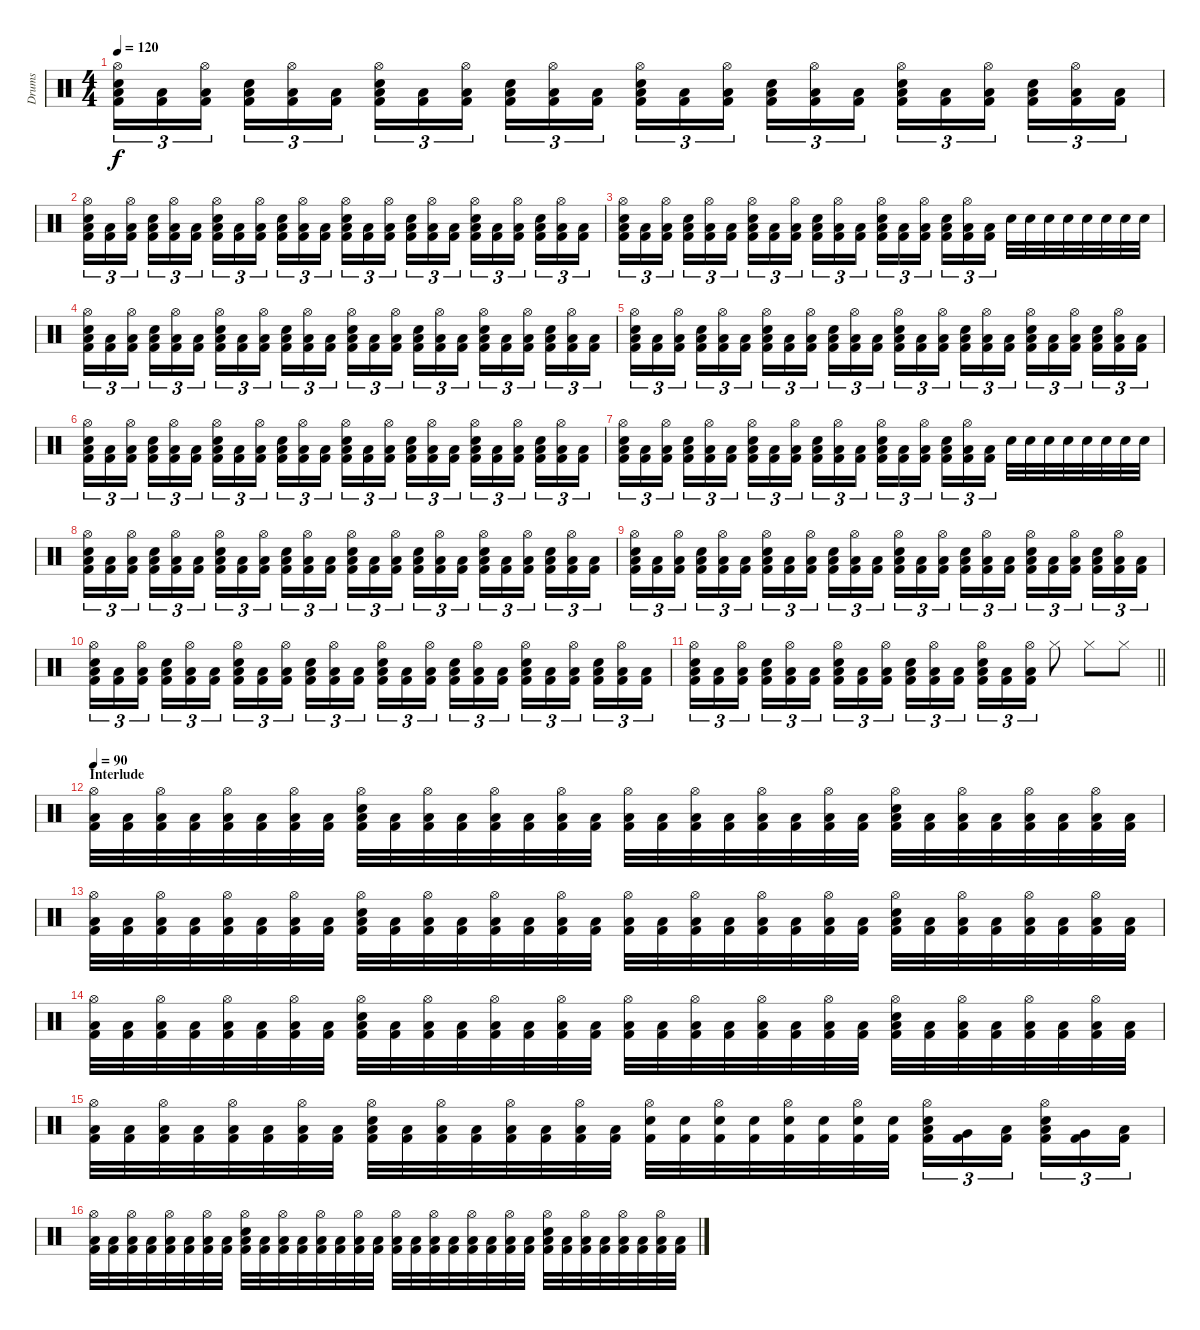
\track ("Drums" "Drums") {instrument percussion}
\staff {score}
\articulation defaults
\ts (4 4)
\tempo 120
\clef neutral
\ks c
("Hi-Hat (open)" "Low Floor Tom (hit)" "Snare (hit) 2" "Kick (hit) 2").16{tu (3 2) dy f} ("Low Floor Tom (hit)" "Kick (hit) 2").16{tu (3 2)} ("Hi-Hat (open)" "Low Floor Tom (hit)" "Kick (hit) 2").16{tu (3 2) beam splitsecondary} ("Low Floor Tom (hit)" "Snare (hit) 2" "Kick (hit) 2").16{tu (3 2)} ("Hi-Hat (open)" "Low Floor Tom (hit)" "Kick (hit) 2").16{tu (3 2)} ("Low Floor Tom (hit)" "Kick (hit) 2").16{tu (3 2)} ("Hi-Hat (open)" "Low Floor Tom (hit)" "Snare (hit) 2" "Kick (hit) 2").16{tu (3 2)} ("Low Floor Tom (hit)" "Kick (hit) 2").16{tu (3 2)} ("Hi-Hat (open)" "Low Floor Tom (hit)" "Kick (hit) 2").16{tu (3 2) beam splitsecondary} ("Low Floor Tom (hit)" "Snare (hit) 2" "Kick (hit) 2").16{tu (3 2)} ("Hi-Hat (open)" "Low Floor Tom (hit)" "Kick (hit) 2").16{tu (3 2)} ("Low Floor Tom (hit)" "Kick (hit) 2").16{tu (3 2)} ("Hi-Hat (open)" "Low Floor Tom (hit)" "Snare (hit) 2" "Kick (hit) 2").16{tu (3 2)} ("Low Floor Tom (hit)" "Kick (hit) 2").16{tu (3 2)} ("Hi-Hat (open)" "Low Floor Tom (hit)" "Kick (hit) 2").16{tu (3 2) beam splitsecondary} ("Low Floor Tom (hit)" "Snare (hit) 2" "Kick (hit) 2").16{tu (3 2)} ("Hi-Hat (open)" "Low Floor Tom (hit)" "Kick (hit) 2").16{tu (3 2)} ("Low Floor Tom (hit)" "Kick (hit) 2").16{tu (3 2)} ("Hi-Hat (open)" "Low Floor Tom (hit)" "Snare (hit) 2" "Kick (hit) 2").16{tu (3 2)} ("Low Floor Tom (hit)" "Kick (hit) 2").16{tu (3 2)} ("Hi-Hat (open)" "Low Floor Tom (hit)" "Kick (hit) 2").16{tu (3 2) beam splitsecondary} ("Low Floor Tom (hit)" "Snare (hit) 2" "Kick (hit) 2").16{tu (3 2)} ("Hi-Hat (open)" "Low Floor Tom (hit)" "Kick (hit) 2").16{tu (3 2)} ("Low Floor Tom (hit)" "Kick (hit) 2").16{tu (3 2)} |
("Hi-Hat (open)" "Low Floor Tom (hit)" "Snare (hit) 2" "Kick (hit) 2").16{tu (3 2)} ("Low Floor Tom (hit)" "Kick (hit) 2").16{tu (3 2)} ("Hi-Hat (open)" "Low Floor Tom (hit)" "Kick (hit) 2").16{tu (3 2) beam splitsecondary} ("Low Floor Tom (hit)" "Snare (hit) 2" "Kick (hit) 2").16{tu (3 2)} ("Hi-Hat (open)" "Low Floor Tom (hit)" "Kick (hit) 2").16{tu (3 2)} ("Low Floor Tom (hit)" "Kick (hit) 2").16{tu (3 2)} ("Hi-Hat (open)" "Low Floor Tom (hit)" "Snare (hit) 2" "Kick (hit) 2").16{tu (3 2)} ("Low Floor Tom (hit)" "Kick (hit) 2").16{tu (3 2)} ("Hi-Hat (open)" "Low Floor Tom (hit)" "Kick (hit) 2").16{tu (3 2) beam splitsecondary} ("Low Floor Tom (hit)" "Snare (hit) 2" "Kick (hit) 2").16{tu (3 2)} ("Hi-Hat (open)" "Low Floor Tom (hit)" "Kick (hit) 2").16{tu (3 2)} ("Low Floor Tom (hit)" "Kick (hit) 2").16{tu (3 2)} ("Hi-Hat (open)" "Low Floor Tom (hit)" "Snare (hit) 2" "Kick (hit) 2").16{tu (3 2)} ("Low Floor Tom (hit)" "Kick (hit) 2").16{tu (3 2)} ("Hi-Hat (open)" "Low Floor Tom (hit)" "Kick (hit) 2").16{tu (3 2) beam splitsecondary} ("Low Floor Tom (hit)" "Snare (hit) 2" "Kick (hit) 2").16{tu (3 2)} ("Hi-Hat (open)" "Low Floor Tom (hit)" "Kick (hit) 2").16{tu (3 2)} ("Low Floor Tom (hit)" "Kick (hit) 2").16{tu (3 2)} ("Hi-Hat (open)" "Low Floor Tom (hit)" "Snare (hit) 2" "Kick (hit) 2").16{tu (3 2)} ("Low Floor Tom (hit)" "Kick (hit) 2").16{tu (3 2)} ("Hi-Hat (open)" "Low Floor Tom (hit)" "Kick (hit) 2").16{tu (3 2) beam splitsecondary} ("Low Floor Tom (hit)" "Snare (hit) 2" "Kick (hit) 2").16{tu (3 2)} ("Hi-Hat (open)" "Low Floor Tom (hit)" "Kick (hit) 2").16{tu (3 2)} ("Low Floor Tom (hit)" "Kick (hit) 2").16{tu (3 2)} |
("Hi-Hat (open)" "Low Floor Tom (hit)" "Snare (hit) 2" "Kick (hit) 2").16{tu (3 2)} ("Low Floor Tom (hit)" "Kick (hit) 2").16{tu (3 2)} ("Hi-Hat (open)" "Low Floor Tom (hit)" "Kick (hit) 2").16{tu (3 2) beam splitsecondary} ("Low Floor Tom (hit)" "Snare (hit) 2" "Kick (hit) 2").16{tu (3 2)} ("Hi-Hat (open)" "Low Floor Tom (hit)" "Kick (hit) 2").16{tu (3 2)} ("Low Floor Tom (hit)" "Kick (hit) 2").16{tu (3 2)} ("Hi-Hat (open)" "Low Floor Tom (hit)" "Snare (hit) 2" "Kick (hit) 2").16{tu (3 2)} ("Low Floor Tom (hit)" "Kick (hit) 2").16{tu (3 2)} ("Hi-Hat (open)" "Low Floor Tom (hit)" "Kick (hit) 2").16{tu (3 2) beam splitsecondary} ("Low Floor Tom (hit)" "Snare (hit) 2" "Kick (hit) 2").16{tu (3 2)} ("Hi-Hat (open)" "Low Floor Tom (hit)" "Kick (hit) 2").16{tu (3 2)} ("Low Floor Tom (hit)" "Kick (hit) 2").16{tu (3 2)} ("Hi-Hat (open)" "Low Floor Tom (hit)" "Snare (hit) 2" "Kick (hit) 2").16{tu (3 2)} ("Low Floor Tom (hit)" "Kick (hit) 2").16{tu (3 2)} ("Hi-Hat (open)" "Low Floor Tom (hit)" "Kick (hit) 2").16{tu (3 2) beam splitsecondary} ("Low Floor Tom (hit)" "Snare (hit) 2" "Kick (hit) 2").16{tu (3 2)} ("Hi-Hat (open)" "Low Floor Tom (hit)" "Kick (hit) 2").16{tu (3 2)} ("Low Floor Tom (hit)" "Kick (hit) 2").16{tu (3 2)} "Snare (hit) 2".32 "Snare (hit) 2".32 "Snare (hit) 2".32 "Snare (hit) 2".32 "Snare (hit) 2".32 "Snare (hit) 2".32 "Snare (hit) 2".32 "Snare (hit) 2".32 |
("Hi-Hat (open)" "Low Floor Tom (hit)" "Snare (hit) 2" "Kick (hit) 2").16{tu (3 2)} ("Low Floor Tom (hit)" "Kick (hit) 2").16{tu (3 2)} ("Hi-Hat (open)" "Low Floor Tom (hit)" "Kick (hit) 2").16{tu (3 2) beam splitsecondary} ("Low Floor Tom (hit)" "Snare (hit) 2" "Kick (hit) 2").16{tu (3 2)} ("Hi-Hat (open)" "Low Floor Tom (hit)" "Kick (hit) 2").16{tu (3 2)} ("Low Floor Tom (hit)" "Kick (hit) 2").16{tu (3 2)} ("Hi-Hat (open)" "Low Floor Tom (hit)" "Snare (hit) 2" "Kick (hit) 2").16{tu (3 2)} ("Low Floor Tom (hit)" "Kick (hit) 2").16{tu (3 2)} ("Hi-Hat (open)" "Low Floor Tom (hit)" "Kick (hit) 2").16{tu (3 2) beam splitsecondary} ("Low Floor Tom (hit)" "Snare (hit) 2" "Kick (hit) 2").16{tu (3 2)} ("Hi-Hat (open)" "Low Floor Tom (hit)" "Kick (hit) 2").16{tu (3 2)} ("Low Floor Tom (hit)" "Kick (hit) 2").16{tu (3 2)} ("Hi-Hat (open)" "Low Floor Tom (hit)" "Snare (hit) 2" "Kick (hit) 2").16{tu (3 2)} ("Low Floor Tom (hit)" "Kick (hit) 2").16{tu (3 2)} ("Hi-Hat (open)" "Low Floor Tom (hit)" "Kick (hit) 2").16{tu (3 2) beam splitsecondary} ("Low Floor Tom (hit)" "Snare (hit) 2" "Kick (hit) 2").16{tu (3 2)} ("Hi-Hat (open)" "Low Floor Tom (hit)" "Kick (hit) 2").16{tu (3 2)} ("Low Floor Tom (hit)" "Kick (hit) 2").16{tu (3 2)} ("Hi-Hat (open)" "Low Floor Tom (hit)" "Snare (hit) 2" "Kick (hit) 2").16{tu (3 2)} ("Low Floor Tom (hit)" "Kick (hit) 2").16{tu (3 2)} ("Hi-Hat (open)" "Low Floor Tom (hit)" "Kick (hit) 2").16{tu (3 2) beam splitsecondary} ("Low Floor Tom (hit)" "Snare (hit) 2" "Kick (hit) 2").16{tu (3 2)} ("Hi-Hat (open)" "Low Floor Tom (hit)" "Kick (hit) 2").16{tu (3 2)} ("Low Floor Tom (hit)" "Kick (hit) 2").16{tu (3 2)} |
("Hi-Hat (open)" "Low Floor Tom (hit)" "Snare (hit) 2" "Kick (hit) 2").16{tu (3 2)} ("Low Floor Tom (hit)" "Kick (hit) 2").16{tu (3 2)} ("Hi-Hat (open)" "Low Floor Tom (hit)" "Kick (hit) 2").16{tu (3 2) beam splitsecondary} ("Low Floor Tom (hit)" "Snare (hit) 2" "Kick (hit) 2").16{tu (3 2)} ("Hi-Hat (open)" "Low Floor Tom (hit)" "Kick (hit) 2").16{tu (3 2)} ("Low Floor Tom (hit)" "Kick (hit) 2").16{tu (3 2)} ("Hi-Hat (open)" "Low Floor Tom (hit)" "Snare (hit) 2" "Kick (hit) 2").16{tu (3 2)} ("Low Floor Tom (hit)" "Kick (hit) 2").16{tu (3 2)} ("Hi-Hat (open)" "Low Floor Tom (hit)" "Kick (hit) 2").16{tu (3 2) beam splitsecondary} ("Low Floor Tom (hit)" "Snare (hit) 2" "Kick (hit) 2").16{tu (3 2)} ("Hi-Hat (open)" "Low Floor Tom (hit)" "Kick (hit) 2").16{tu (3 2)} ("Low Floor Tom (hit)" "Kick (hit) 2").16{tu (3 2)} ("Hi-Hat (open)" "Low Floor Tom (hit)" "Snare (hit) 2" "Kick (hit) 2").16{tu (3 2)} ("Low Floor Tom (hit)" "Kick (hit) 2").16{tu (3 2)} ("Hi-Hat (open)" "Low Floor Tom (hit)" "Kick (hit) 2").16{tu (3 2) beam splitsecondary} ("Low Floor Tom (hit)" "Snare (hit) 2" "Kick (hit) 2").16{tu (3 2)} ("Hi-Hat (open)" "Low Floor Tom (hit)" "Kick (hit) 2").16{tu (3 2)} ("Low Floor Tom (hit)" "Kick (hit) 2").16{tu (3 2)} ("Hi-Hat (open)" "Low Floor Tom (hit)" "Snare (hit) 2" "Kick (hit) 2").16{tu (3 2)} ("Low Floor Tom (hit)" "Kick (hit) 2").16{tu (3 2)} ("Hi-Hat (open)" "Low Floor Tom (hit)" "Kick (hit) 2").16{tu (3 2) beam splitsecondary} ("Low Floor Tom (hit)" "Snare (hit) 2" "Kick (hit) 2").16{tu (3 2)} ("Hi-Hat (open)" "Low Floor Tom (hit)" "Kick (hit) 2").16{tu (3 2)} ("Low Floor Tom (hit)" "Kick (hit) 2").16{tu (3 2)} |
("Hi-Hat (open)" "Low Floor Tom (hit)" "Snare (hit) 2" "Kick (hit) 2").16{tu (3 2)} ("Low Floor Tom (hit)" "Kick (hit) 2").16{tu (3 2)} ("Hi-Hat (open)" "Low Floor Tom (hit)" "Kick (hit) 2").16{tu (3 2) beam splitsecondary} ("Low Floor Tom (hit)" "Snare (hit) 2" "Kick (hit) 2").16{tu (3 2)} ("Hi-Hat (open)" "Low Floor Tom (hit)" "Kick (hit) 2").16{tu (3 2)} ("Low Floor Tom (hit)" "Kick (hit) 2").16{tu (3 2)} ("Hi-Hat (open)" "Low Floor Tom (hit)" "Snare (hit) 2" "Kick (hit) 2").16{tu (3 2)} ("Low Floor Tom (hit)" "Kick (hit) 2").16{tu (3 2)} ("Hi-Hat (open)" "Low Floor Tom (hit)" "Kick (hit) 2").16{tu (3 2) beam splitsecondary} ("Low Floor Tom (hit)" "Snare (hit) 2" "Kick (hit) 2").16{tu (3 2)} ("Hi-Hat (open)" "Low Floor Tom (hit)" "Kick (hit) 2").16{tu (3 2)} ("Low Floor Tom (hit)" "Kick (hit) 2").16{tu (3 2)} ("Hi-Hat (open)" "Low Floor Tom (hit)" "Snare (hit) 2" "Kick (hit) 2").16{tu (3 2)} ("Low Floor Tom (hit)" "Kick (hit) 2").16{tu (3 2)} ("Hi-Hat (open)" "Low Floor Tom (hit)" "Kick (hit) 2").16{tu (3 2) beam splitsecondary} ("Low Floor Tom (hit)" "Snare (hit) 2" "Kick (hit) 2").16{tu (3 2)} ("Hi-Hat (open)" "Low Floor Tom (hit)" "Kick (hit) 2").16{tu (3 2)} ("Low Floor Tom (hit)" "Kick (hit) 2").16{tu (3 2)} ("Hi-Hat (open)" "Low Floor Tom (hit)" "Snare (hit) 2" "Kick (hit) 2").16{tu (3 2)} ("Low Floor Tom (hit)" "Kick (hit) 2").16{tu (3 2)} ("Hi-Hat (open)" "Low Floor Tom (hit)" "Kick (hit) 2").16{tu (3 2) beam splitsecondary} ("Low Floor Tom (hit)" "Snare (hit) 2" "Kick (hit) 2").16{tu (3 2)} ("Hi-Hat (open)" "Low Floor Tom (hit)" "Kick (hit) 2").16{tu (3 2)} ("Low Floor Tom (hit)" "Kick (hit) 2").16{tu (3 2)} |
("Hi-Hat (open)" "Low Floor Tom (hit)" "Snare (hit) 2" "Kick (hit) 2").16{tu (3 2)} ("Low Floor Tom (hit)" "Kick (hit) 2").16{tu (3 2)} ("Hi-Hat (open)" "Low Floor Tom (hit)" "Kick (hit) 2").16{tu (3 2) beam splitsecondary} ("Low Floor Tom (hit)" "Snare (hit) 2" "Kick (hit) 2").16{tu (3 2)} ("Hi-Hat (open)" "Low Floor Tom (hit)" "Kick (hit) 2").16{tu (3 2)} ("Low Floor Tom (hit)" "Kick (hit) 2").16{tu (3 2)} ("Hi-Hat (open)" "Low Floor Tom (hit)" "Snare (hit) 2" "Kick (hit) 2").16{tu (3 2)} ("Low Floor Tom (hit)" "Kick (hit) 2").16{tu (3 2)} ("Hi-Hat (open)" "Low Floor Tom (hit)" "Kick (hit) 2").16{tu (3 2) beam splitsecondary} ("Low Floor Tom (hit)" "Snare (hit) 2" "Kick (hit) 2").16{tu (3 2)} ("Hi-Hat (open)" "Low Floor Tom (hit)" "Kick (hit) 2").16{tu (3 2)} ("Low Floor Tom (hit)" "Kick (hit) 2").16{tu (3 2)} ("Hi-Hat (open)" "Low Floor Tom (hit)" "Snare (hit) 2" "Kick (hit) 2").16{tu (3 2)} ("Low Floor Tom (hit)" "Kick (hit) 2").16{tu (3 2)} ("Hi-Hat (open)" "Low Floor Tom (hit)" "Kick (hit) 2").16{tu (3 2) beam splitsecondary} ("Low Floor Tom (hit)" "Snare (hit) 2" "Kick (hit) 2").16{tu (3 2)} ("Hi-Hat (open)" "Low Floor Tom (hit)" "Kick (hit) 2").16{tu (3 2)} ("Low Floor Tom (hit)" "Kick (hit) 2").16{tu (3 2)} "Snare (hit) 2".32 "Snare (hit) 2".32 "Snare (hit) 2".32 "Snare (hit) 2".32 "Snare (hit) 2".32 "Snare (hit) 2".32 "Snare (hit) 2".32 "Snare (hit) 2".32 |
("Hi-Hat (open)" "Low Floor Tom (hit)" "Snare (hit) 2" "Kick (hit) 2").16{tu (3 2)} ("Low Floor Tom (hit)" "Kick (hit) 2").16{tu (3 2)} ("Hi-Hat (open)" "Low Floor Tom (hit)" "Kick (hit) 2").16{tu (3 2) beam splitsecondary} ("Low Floor Tom (hit)" "Snare (hit) 2" "Kick (hit) 2").16{tu (3 2)} ("Hi-Hat (open)" "Low Floor Tom (hit)" "Kick (hit) 2").16{tu (3 2)} ("Low Floor Tom (hit)" "Kick (hit) 2").16{tu (3 2)} ("Hi-Hat (open)" "Low Floor Tom (hit)" "Snare (hit) 2" "Kick (hit) 2").16{tu (3 2)} ("Low Floor Tom (hit)" "Kick (hit) 2").16{tu (3 2)} ("Hi-Hat (open)" "Low Floor Tom (hit)" "Kick (hit) 2").16{tu (3 2) beam splitsecondary} ("Low Floor Tom (hit)" "Snare (hit) 2" "Kick (hit) 2").16{tu (3 2)} ("Hi-Hat (open)" "Low Floor Tom (hit)" "Kick (hit) 2").16{tu (3 2)} ("Low Floor Tom (hit)" "Kick (hit) 2").16{tu (3 2)} ("Hi-Hat (open)" "Low Floor Tom (hit)" "Snare (hit) 2" "Kick (hit) 2").16{tu (3 2)} ("Low Floor Tom (hit)" "Kick (hit) 2").16{tu (3 2)} ("Hi-Hat (open)" "Low Floor Tom (hit)" "Kick (hit) 2").16{tu (3 2) beam splitsecondary} ("Low Floor Tom (hit)" "Snare (hit) 2" "Kick (hit) 2").16{tu (3 2)} ("Hi-Hat (open)" "Low Floor Tom (hit)" "Kick (hit) 2").16{tu (3 2)} ("Low Floor Tom (hit)" "Kick (hit) 2").16{tu (3 2)} ("Hi-Hat (open)" "Low Floor Tom (hit)" "Snare (hit) 2" "Kick (hit) 2").16{tu (3 2)} ("Low Floor Tom (hit)" "Kick (hit) 2").16{tu (3 2)} ("Hi-Hat (open)" "Low Floor Tom (hit)" "Kick (hit) 2").16{tu (3 2) beam splitsecondary} ("Low Floor Tom (hit)" "Snare (hit) 2" "Kick (hit) 2").16{tu (3 2)} ("Hi-Hat (open)" "Low Floor Tom (hit)" "Kick (hit) 2").16{tu (3 2)} ("Low Floor Tom (hit)" "Kick (hit) 2").16{tu (3 2)} |
("Hi-Hat (open)" "Low Floor Tom (hit)" "Snare (hit) 2" "Kick (hit) 2").16{tu (3 2)} ("Low Floor Tom (hit)" "Kick (hit) 2").16{tu (3 2)} ("Hi-Hat (open)" "Low Floor Tom (hit)" "Kick (hit) 2").16{tu (3 2) beam splitsecondary} ("Low Floor Tom (hit)" "Snare (hit) 2" "Kick (hit) 2").16{tu (3 2)} ("Hi-Hat (open)" "Low Floor Tom (hit)" "Kick (hit) 2").16{tu (3 2)} ("Low Floor Tom (hit)" "Kick (hit) 2").16{tu (3 2)} ("Hi-Hat (open)" "Low Floor Tom (hit)" "Snare (hit) 2" "Kick (hit) 2").16{tu (3 2)} ("Low Floor Tom (hit)" "Kick (hit) 2").16{tu (3 2)} ("Hi-Hat (open)" "Low Floor Tom (hit)" "Kick (hit) 2").16{tu (3 2) beam splitsecondary} ("Low Floor Tom (hit)" "Snare (hit) 2" "Kick (hit) 2").16{tu (3 2)} ("Hi-Hat (open)" "Low Floor Tom (hit)" "Kick (hit) 2").16{tu (3 2)} ("Low Floor Tom (hit)" "Kick (hit) 2").16{tu (3 2)} ("Hi-Hat (open)" "Low Floor Tom (hit)" "Snare (hit) 2" "Kick (hit) 2").16{tu (3 2)} ("Low Floor Tom (hit)" "Kick (hit) 2").16{tu (3 2)} ("Hi-Hat (open)" "Low Floor Tom (hit)" "Kick (hit) 2").16{tu (3 2) beam splitsecondary} ("Low Floor Tom (hit)" "Snare (hit) 2" "Kick (hit) 2").16{tu (3 2)} ("Hi-Hat (open)" "Low Floor Tom (hit)" "Kick (hit) 2").16{tu (3 2)} ("Low Floor Tom (hit)" "Kick (hit) 2").16{tu (3 2)} ("Hi-Hat (open)" "Low Floor Tom (hit)" "Snare (hit) 2" "Kick (hit) 2").16{tu (3 2)} ("Low Floor Tom (hit)" "Kick (hit) 2").16{tu (3 2)} ("Hi-Hat (open)" "Low Floor Tom (hit)" "Kick (hit) 2").16{tu (3 2) beam splitsecondary} ("Low Floor Tom (hit)" "Snare (hit) 2" "Kick (hit) 2").16{tu (3 2)} ("Hi-Hat (open)" "Low Floor Tom (hit)" "Kick (hit) 2").16{tu (3 2)} ("Low Floor Tom (hit)" "Kick (hit) 2").16{tu (3 2)} |
("Hi-Hat (open)" "Low Floor Tom (hit)" "Snare (hit) 2" "Kick (hit) 2").16{tu (3 2)} ("Low Floor Tom (hit)" "Kick (hit) 2").16{tu (3 2)} ("Hi-Hat (open)" "Low Floor Tom (hit)" "Kick (hit) 2").16{tu (3 2) beam splitsecondary} ("Low Floor Tom (hit)" "Snare (hit) 2" "Kick (hit) 2").16{tu (3 2)} ("Hi-Hat (open)" "Low Floor Tom (hit)" "Kick (hit) 2").16{tu (3 2)} ("Low Floor Tom (hit)" "Kick (hit) 2").16{tu (3 2)} ("Hi-Hat (open)" "Low Floor Tom (hit)" "Snare (hit) 2" "Kick (hit) 2").16{tu (3 2)} ("Low Floor Tom (hit)" "Kick (hit) 2").16{tu (3 2)} ("Hi-Hat (open)" "Low Floor Tom (hit)" "Kick (hit) 2").16{tu (3 2) beam splitsecondary} ("Low Floor Tom (hit)" "Snare (hit) 2" "Kick (hit) 2").16{tu (3 2)} ("Hi-Hat (open)" "Low Floor Tom (hit)" "Kick (hit) 2").16{tu (3 2)} ("Low Floor Tom (hit)" "Kick (hit) 2").16{tu (3 2)} ("Hi-Hat (open)" "Low Floor Tom (hit)" "Snare (hit) 2" "Kick (hit) 2").16{tu (3 2)} ("Low Floor Tom (hit)" "Kick (hit) 2").16{tu (3 2)} ("Hi-Hat (open)" "Low Floor Tom (hit)" "Kick (hit) 2").16{tu (3 2) beam splitsecondary} ("Low Floor Tom (hit)" "Snare (hit) 2" "Kick (hit) 2").16{tu (3 2)} ("Hi-Hat (open)" "Low Floor Tom (hit)" "Kick (hit) 2").16{tu (3 2)} ("Low Floor Tom (hit)" "Kick (hit) 2").16{tu (3 2)} ("Hi-Hat (open)" "Low Floor Tom (hit)" "Snare (hit) 2" "Kick (hit) 2").16{tu (3 2)} ("Low Floor Tom (hit)" "Kick (hit) 2").16{tu (3 2)} ("Hi-Hat (open)" "Low Floor Tom (hit)" "Kick (hit) 2").16{tu (3 2) beam splitsecondary} ("Low Floor Tom (hit)" "Snare (hit) 2" "Kick (hit) 2").16{tu (3 2)} ("Hi-Hat (open)" "Low Floor Tom (hit)" "Kick (hit) 2").16{tu (3 2)} ("Low Floor Tom (hit)" "Kick (hit) 2").16{tu (3 2)} |
\barLineRight lightlight
("Hi-Hat (open)" "Low Floor Tom (hit)" "Snare (hit) 2" "Kick (hit) 2").16{tu (3 2)} ("Low Floor Tom (hit)" "Kick (hit) 2").16{tu (3 2)} ("Hi-Hat (open)" "Low Floor Tom (hit)" "Kick (hit) 2").16{tu (3 2) beam splitsecondary} ("Low Floor Tom (hit)" "Snare (hit) 2" "Kick (hit) 2").16{tu (3 2)} ("Hi-Hat (open)" "Low Floor Tom (hit)" "Kick (hit) 2").16{tu (3 2)} ("Low Floor Tom (hit)" "Kick (hit) 2").16{tu (3 2)} ("Hi-Hat (open)" "Low Floor Tom (hit)" "Snare (hit) 2" "Kick (hit) 2").16{tu (3 2)} ("Low Floor Tom (hit)" "Kick (hit) 2").16{tu (3 2)} ("Hi-Hat (open)" "Low Floor Tom (hit)" "Kick (hit) 2").16{tu (3 2) beam splitsecondary} ("Low Floor Tom (hit)" "Snare (hit) 2" "Kick (hit) 2").16{tu (3 2)} ("Hi-Hat (open)" "Low Floor Tom (hit)" "Kick (hit) 2").16{tu (3 2)} ("Low Floor Tom (hit)" "Kick (hit) 2").16{tu (3 2)} ("Hi-Hat (open)" "Low Floor Tom (hit)" "Snare (hit) 2" "Kick (hit) 2").16{tu (3 2)} ("Low Floor Tom (hit)" "Kick (hit) 2").16{tu (3 2)} ("Hi-Hat (open)" "Low Floor Tom (hit)" "Kick (hit) 2").16{tu (3 2)} "Hi-Hat (closed)".8 "Hi-Hat (closed)".8 "Hi-Hat (closed)".8 |
\section ("" "Interlude")
\tempo 90
("Hi-Hat (open)" "Low Floor Tom (hit)" "Kick (hit) 2").32 ("Low Floor Tom (hit)" "Kick (hit) 2").32 ("Hi-Hat (open)" "Low Floor Tom (hit)" "Kick (hit) 2").32 ("Low Floor Tom (hit)" "Kick (hit) 2").32 ("Hi-Hat (open)" "Low Floor Tom (hit)" "Kick (hit) 2").32 ("Low Floor Tom (hit)" "Kick (hit) 2").32 ("Hi-Hat (open)" "Low Floor Tom (hit)" "Kick (hit) 2").32 ("Low Floor Tom (hit)" "Kick (hit) 2").32 ("Hi-Hat (open)" "Low Floor Tom (hit)" "Snare (hit) 2" "Kick (hit) 2").32 ("Low Floor Tom (hit)" "Kick (hit) 2").32 ("Hi-Hat (open)" "Low Floor Tom (hit)" "Kick (hit) 2").32 ("Low Floor Tom (hit)" "Kick (hit) 2").32 ("Hi-Hat (open)" "Low Floor Tom (hit)" "Kick (hit) 2").32 ("Low Floor Tom (hit)" "Kick (hit) 2").32 ("Hi-Hat (open)" "Low Floor Tom (hit)" "Kick (hit) 2").32 ("Low Floor Tom (hit)" "Kick (hit) 2").32 ("Hi-Hat (open)" "Low Floor Tom (hit)" "Kick (hit) 2").32 ("Low Floor Tom (hit)" "Kick (hit) 2").32 ("Hi-Hat (open)" "Low Floor Tom (hit)" "Kick (hit) 2").32 ("Low Floor Tom (hit)" "Kick (hit) 2").32 ("Hi-Hat (open)" "Low Floor Tom (hit)" "Kick (hit) 2").32 ("Low Floor Tom (hit)" "Kick (hit) 2").32 ("Hi-Hat (open)" "Low Floor Tom (hit)" "Kick (hit) 2").32 ("Low Floor Tom (hit)" "Kick (hit) 2").32 ("Hi-Hat (open)" "Low Floor Tom (hit)" "Snare (hit) 2" "Kick (hit) 2").32 ("Low Floor Tom (hit)" "Kick (hit) 2").32 ("Hi-Hat (open)" "Low Floor Tom (hit)" "Kick (hit) 2").32 ("Low Floor Tom (hit)" "Kick (hit) 2").32 ("Hi-Hat (open)" "Low Floor Tom (hit)" "Kick (hit) 2").32 ("Low Floor Tom (hit)" "Kick (hit) 2").32 ("Hi-Hat (open)" "Low Floor Tom (hit)" "Kick (hit) 2").32 ("Low Floor Tom (hit)" "Kick (hit) 2").32 |
("Hi-Hat (open)" "Low Floor Tom (hit)" "Kick (hit) 2").32 ("Low Floor Tom (hit)" "Kick (hit) 2").32 ("Hi-Hat (open)" "Low Floor Tom (hit)" "Kick (hit) 2").32 ("Low Floor Tom (hit)" "Kick (hit) 2").32 ("Hi-Hat (open)" "Low Floor Tom (hit)" "Kick (hit) 2").32 ("Low Floor Tom (hit)" "Kick (hit) 2").32 ("Hi-Hat (open)" "Low Floor Tom (hit)" "Kick (hit) 2").32 ("Low Floor Tom (hit)" "Kick (hit) 2").32 ("Hi-Hat (open)" "Low Floor Tom (hit)" "Snare (hit) 2" "Kick (hit) 2").32 ("Low Floor Tom (hit)" "Kick (hit) 2").32 ("Hi-Hat (open)" "Low Floor Tom (hit)" "Kick (hit) 2").32 ("Low Floor Tom (hit)" "Kick (hit) 2").32 ("Hi-Hat (open)" "Low Floor Tom (hit)" "Kick (hit) 2").32 ("Low Floor Tom (hit)" "Kick (hit) 2").32 ("Hi-Hat (open)" "Low Floor Tom (hit)" "Kick (hit) 2").32 ("Low Floor Tom (hit)" "Kick (hit) 2").32 ("Hi-Hat (open)" "Low Floor Tom (hit)" "Kick (hit) 2").32 ("Low Floor Tom (hit)" "Kick (hit) 2").32 ("Hi-Hat (open)" "Low Floor Tom (hit)" "Kick (hit) 2").32 ("Low Floor Tom (hit)" "Kick (hit) 2").32 ("Hi-Hat (open)" "Low Floor Tom (hit)" "Kick (hit) 2").32 ("Low Floor Tom (hit)" "Kick (hit) 2").32 ("Hi-Hat (open)" "Low Floor Tom (hit)" "Kick (hit) 2").32 ("Low Floor Tom (hit)" "Kick (hit) 2").32 ("Hi-Hat (open)" "Low Floor Tom (hit)" "Snare (hit) 2" "Kick (hit) 2").32 ("Low Floor Tom (hit)" "Kick (hit) 2").32 ("Hi-Hat (open)" "Low Floor Tom (hit)" "Kick (hit) 2").32 ("Low Floor Tom (hit)" "Kick (hit) 2").32 ("Hi-Hat (open)" "Low Floor Tom (hit)" "Kick (hit) 2").32 ("Low Floor Tom (hit)" "Kick (hit) 2").32 ("Hi-Hat (open)" "Low Floor Tom (hit)" "Kick (hit) 2").32 ("Low Floor Tom (hit)" "Kick (hit) 2").32 |
("Hi-Hat (open)" "Low Floor Tom (hit)" "Kick (hit) 2").32 ("Low Floor Tom (hit)" "Kick (hit) 2").32 ("Hi-Hat (open)" "Low Floor Tom (hit)" "Kick (hit) 2").32 ("Low Floor Tom (hit)" "Kick (hit) 2").32 ("Hi-Hat (open)" "Low Floor Tom (hit)" "Kick (hit) 2").32 ("Low Floor Tom (hit)" "Kick (hit) 2").32 ("Hi-Hat (open)" "Low Floor Tom (hit)" "Kick (hit) 2").32 ("Low Floor Tom (hit)" "Kick (hit) 2").32 ("Hi-Hat (open)" "Low Floor Tom (hit)" "Snare (hit) 2" "Kick (hit) 2").32 ("Low Floor Tom (hit)" "Kick (hit) 2").32 ("Hi-Hat (open)" "Low Floor Tom (hit)" "Kick (hit) 2").32 ("Low Floor Tom (hit)" "Kick (hit) 2").32 ("Hi-Hat (open)" "Low Floor Tom (hit)" "Kick (hit) 2").32 ("Low Floor Tom (hit)" "Kick (hit) 2").32 ("Hi-Hat (open)" "Low Floor Tom (hit)" "Kick (hit) 2").32 ("Low Floor Tom (hit)" "Kick (hit) 2").32 ("Hi-Hat (open)" "Low Floor Tom (hit)" "Kick (hit) 2").32 ("Low Floor Tom (hit)" "Kick (hit) 2").32 ("Hi-Hat (open)" "Low Floor Tom (hit)" "Kick (hit) 2").32 ("Low Floor Tom (hit)" "Kick (hit) 2").32 ("Hi-Hat (open)" "Low Floor Tom (hit)" "Kick (hit) 2").32 ("Low Floor Tom (hit)" "Kick (hit) 2").32 ("Hi-Hat (open)" "Low Floor Tom (hit)" "Kick (hit) 2").32 ("Low Floor Tom (hit)" "Kick (hit) 2").32 ("Hi-Hat (open)" "Low Floor Tom (hit)" "Snare (hit) 2" "Kick (hit) 2").32 ("Low Floor Tom (hit)" "Kick (hit) 2").32 ("Hi-Hat (open)" "Low Floor Tom (hit)" "Kick (hit) 2").32 ("Low Floor Tom (hit)" "Kick (hit) 2").32 ("Hi-Hat (open)" "Low Floor Tom (hit)" "Kick (hit) 2").32 ("Low Floor Tom (hit)" "Kick (hit) 2").32 ("Hi-Hat (open)" "Low Floor Tom (hit)" "Kick (hit) 2").32 ("Low Floor Tom (hit)" "Kick (hit) 2").32 |
("Hi-Hat (open)" "Low Floor Tom (hit)" "Kick (hit) 2").32 ("Low Floor Tom (hit)" "Kick (hit) 2").32 ("Hi-Hat (open)" "Low Floor Tom (hit)" "Kick (hit) 2").32 ("Low Floor Tom (hit)" "Kick (hit) 2").32 ("Hi-Hat (open)" "Low Floor Tom (hit)" "Kick (hit) 2").32 ("Low Floor Tom (hit)" "Kick (hit) 2").32 ("Hi-Hat (open)" "Low Floor Tom (hit)" "Kick (hit) 2").32 ("Low Floor Tom (hit)" "Kick (hit) 2").32 ("Hi-Hat (open)" "Low Floor Tom (hit)" "Snare (hit) 2" "Kick (hit) 2").32 ("Low Floor Tom (hit)" "Kick (hit) 2").32 ("Hi-Hat (open)" "Low Floor Tom (hit)" "Kick (hit) 2").32 ("Low Floor Tom (hit)" "Kick (hit) 2").32 ("Hi-Hat (open)" "Low Floor Tom (hit)" "Kick (hit) 2").32 ("Low Floor Tom (hit)" "Kick (hit) 2").32 ("Hi-Hat (open)" "Low Floor Tom (hit)" "Kick (hit) 2").32 ("Low Floor Tom (hit)" "Kick (hit) 2").32 ("Hi-Hat (open)" "Snare (hit) 2" "Kick (hit) 2").32 ("Snare (hit) 2" "Kick (hit) 2").32 ("Hi-Hat (open)" "Snare (hit) 2" "Kick (hit) 2").32 ("Snare (hit) 2" "Kick (hit) 2").32 ("Hi-Hat (open)" "Snare (hit) 2" "Kick (hit) 2").32 ("Snare (hit) 2" "Kick (hit) 2").32 ("Hi-Hat (open)" "Snare (hit) 2" "Kick (hit) 2").32 ("Snare (hit) 2" "Kick (hit) 2").32 ("Hi-Hat (open)" "Low Tom (hit)" "Snare (hit) 2" "Kick (hit) 2").16{tu (3 2)} ("Very Low Tom (hit)" "Kick (hit) 2").16{tu (3 2)} ("Low Floor Tom (hit)" "Kick (hit) 2").16{tu (3 2) beam splitsecondary} ("Hi-Hat (open)" "Low Tom (hit)" "Snare (hit) 2" "Kick (hit) 2").16{tu (3 2)} ("Very Low Tom (hit)" "Kick (hit) 2").16{tu (3 2)} ("Low Floor Tom (hit)" "Kick (hit) 2").16{tu (3 2)} |
("Hi-Hat (open)" "Low Floor Tom (hit)" "Kick (hit) 2").32 ("Low Floor Tom (hit)" "Kick (hit) 2").32 ("Hi-Hat (open)" "Low Floor Tom (hit)" "Kick (hit) 2").32 ("Low Floor Tom (hit)" "Kick (hit) 2").32 ("Hi-Hat (open)" "Low Floor Tom (hit)" "Kick (hit) 2").32 ("Low Floor Tom (hit)" "Kick (hit) 2").32 ("Hi-Hat (open)" "Low Floor Tom (hit)" "Kick (hit) 2").32 ("Low Floor Tom (hit)" "Kick (hit) 2").32 ("Hi-Hat (open)" "Low Floor Tom (hit)" "Snare (hit) 2" "Kick (hit) 2").32 ("Low Floor Tom (hit)" "Kick (hit) 2").32 ("Hi-Hat (open)" "Low Floor Tom (hit)" "Kick (hit) 2").32 ("Low Floor Tom (hit)" "Kick (hit) 2").32 ("Hi-Hat (open)" "Low Floor Tom (hit)" "Kick (hit) 2").32 ("Low Floor Tom (hit)" "Kick (hit) 2").32 ("Hi-Hat (open)" "Low Floor Tom (hit)" "Kick (hit) 2").32 ("Low Floor Tom (hit)" "Kick (hit) 2").32 ("Hi-Hat (open)" "Low Floor Tom (hit)" "Kick (hit) 2").32 ("Low Floor Tom (hit)" "Kick (hit) 2").32 ("Hi-Hat (open)" "Low Floor Tom (hit)" "Kick (hit) 2").32 ("Low Floor Tom (hit)" "Kick (hit) 2").32 ("Hi-Hat (open)" "Low Floor Tom (hit)" "Kick (hit) 2").32 ("Low Floor Tom (hit)" "Kick (hit) 2").32 ("Hi-Hat (open)" "Low Floor Tom (hit)" "Kick (hit) 2").32 ("Low Floor Tom (hit)" "Kick (hit) 2").32 ("Hi-Hat (open)" "Low Floor Tom (hit)" "Snare (hit) 2" "Kick (hit) 2").32 ("Low Floor Tom (hit)" "Kick (hit) 2").32 ("Hi-Hat (open)" "Low Floor Tom (hit)" "Kick (hit) 2").32 ("Low Floor Tom (hit)" "Kick (hit) 2").32 ("Hi-Hat (open)" "Low Floor Tom (hit)" "Kick (hit) 2").32 ("Low Floor Tom (hit)" "Kick (hit) 2").32 ("Hi-Hat (open)" "Low Floor Tom (hit)" "Kick (hit) 2").32 ("Low Floor Tom (hit)" "Kick (hit) 2").32
